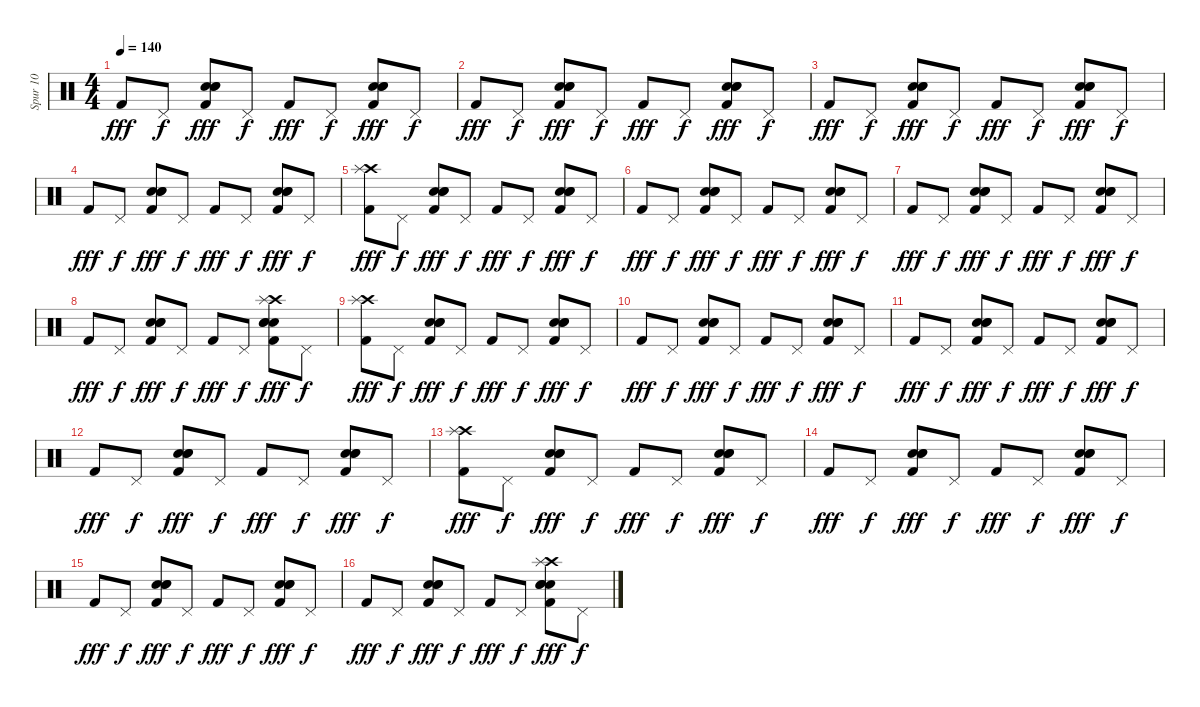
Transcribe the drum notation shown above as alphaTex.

\track ("Spur 10" "Spur 10") {instrument percussion}
\staff {score}
\articulation defaults
\ts (4 4)
\tempo 140
\clef neutral
\ks c "Kick (hit) 2".8{dy fff} "Pedal Hi-Hat (hit)".8{dy f}
("Hand Clap (hit)" "Electric Snare (hit)" "Snare (hit) 2" "Kick (hit) 2").8{dy fff} "Pedal Hi-Hat (hit)".8{dy f} "Kick (hit) 2".8{dy fff} "Pedal Hi-Hat (hit)".8{dy f} ("Hand Clap (hit)" "Electric Snare (hit)" "Snare (hit) 2" "Kick (hit) 2").8{dy fff} "Pedal Hi-Hat (hit)".8{dy f} |
"Kick (hit) 2".8{dy fff} "Pedal Hi-Hat (hit)".8{dy f} ("Hand Clap (hit)" "Electric Snare (hit)" "Snare (hit) 2" "Kick (hit) 2").8{dy fff} "Pedal Hi-Hat (hit)".8{dy f} "Kick (hit) 2".8{dy fff} "Pedal Hi-Hat (hit)".8{dy f} ("Electric Snare (hit)" "Hand Clap (hit)" "Snare (hit) 2" "Kick (hit) 2").8{dy fff} "Pedal Hi-Hat (hit)".8{dy f} |
"Kick (hit) 2".8{dy fff} "Pedal Hi-Hat (hit)".8{dy f} ("Hand Clap (hit)" "Electric Snare (hit)" "Snare (hit) 2" "Kick (hit) 2").8{dy fff} "Pedal Hi-Hat (hit)".8{dy f} "Kick (hit) 2".8{dy fff} "Pedal Hi-Hat (hit)".8{dy f} ("Hand Clap (hit)" "Electric Snare (hit)" "Snare (hit) 2" "Kick (hit) 2").8{dy fff} "Pedal Hi-Hat (hit)".8{dy f} |
"Kick (hit) 2".8{dy fff} "Pedal Hi-Hat (hit)".8{dy f} ("Electric Snare (hit)" "Hand Clap (hit)" "Snare (hit) 2" "Kick (hit) 2").8{dy fff} "Pedal Hi-Hat (hit)".8{dy f} "Kick (hit) 2".8{dy fff} "Pedal Hi-Hat (hit)".8{dy f} ("Electric Snare (hit)" "Hand Clap (hit)" "Snare (hit) 2" "Kick (hit) 2").8{dy fff} "Pedal Hi-Hat (hit)".8{dy f} |
("Crash high (hit)" "Splash (hit)" "Kick (hit) 2").8{dy fff} "Pedal Hi-Hat (hit)".8{dy f} ("Hand Clap (hit)" "Electric Snare (hit)" "Snare (hit) 2" "Kick (hit) 2").8{dy fff} "Pedal Hi-Hat (hit)".8{dy f} "Kick (hit) 2".8{dy fff} "Pedal Hi-Hat (hit)".8{dy f} ("Electric Snare (hit)" "Hand Clap (hit)" "Snare (hit) 2" "Kick (hit) 2").8{dy fff} "Pedal Hi-Hat (hit)".8{dy f} |
"Kick (hit) 2".8{dy fff} "Pedal Hi-Hat (hit)".8{dy f} ("Electric Snare (hit)" "Hand Clap (hit)" "Snare (hit) 2" "Kick (hit) 2").8{dy fff} "Pedal Hi-Hat (hit)".8{dy f} "Kick (hit) 2".8{dy fff} "Pedal Hi-Hat (hit)".8{dy f} ("Hand Clap (hit)" "Electric Snare (hit)" "Snare (hit) 2" "Kick (hit) 2").8{dy fff} "Pedal Hi-Hat (hit)".8{dy f} |
"Kick (hit) 2".8{dy fff} "Pedal Hi-Hat (hit)".8{dy f} ("Electric Snare (hit)" "Hand Clap (hit)" "Snare (hit) 2" "Kick (hit) 2").8{dy fff} "Pedal Hi-Hat (hit)".8{dy f} "Kick (hit) 2".8{dy fff} "Pedal Hi-Hat (hit)".8{dy f} ("Electric Snare (hit)" "Hand Clap (hit)" "Snare (hit) 2" "Kick (hit) 2").8{dy fff} "Pedal Hi-Hat (hit)".8{dy f} |
"Kick (hit) 2".8{dy fff} "Pedal Hi-Hat (hit)".8{dy f} ("Electric Snare (hit)" "Hand Clap (hit)" "Snare (hit) 2" "Kick (hit) 2").8{dy fff} "Pedal Hi-Hat (hit)".8{dy f} "Kick (hit) 2".8{dy fff} "Pedal Hi-Hat (hit)".8{dy f} ("Crash high (hit)" "Splash (hit)" "Electric Snare (hit)" "Hand Clap (hit)" "Snare (hit) 2" "Kick (hit) 2").8{dy fff} "Pedal Hi-Hat (hit)".8{dy f} |
("Crash high (hit)" "Splash (hit)" "Kick (hit) 2").8{dy fff} "Pedal Hi-Hat (hit)".8{dy f} ("Electric Snare (hit)" "Hand Clap (hit)" "Snare (hit) 2" "Kick (hit) 2").8{dy fff} "Pedal Hi-Hat (hit)".8{dy f} "Kick (hit) 2".8{dy fff} "Pedal Hi-Hat (hit)".8{dy f} ("Hand Clap (hit)" "Electric Snare (hit)" "Snare (hit) 2" "Kick (hit) 2").8{dy fff} "Pedal Hi-Hat (hit)".8{dy f} |
"Kick (hit) 2".8{dy fff} "Pedal Hi-Hat (hit)".8{dy f} ("Electric Snare (hit)" "Hand Clap (hit)" "Snare (hit) 2" "Kick (hit) 2").8{dy fff} "Pedal Hi-Hat (hit)".8{dy f} "Kick (hit) 2".8{dy fff} "Pedal Hi-Hat (hit)".8{dy f} ("Hand Clap (hit)" "Electric Snare (hit)" "Snare (hit) 2" "Kick (hit) 2").8{dy fff} "Pedal Hi-Hat (hit)".8{dy f} |
"Kick (hit) 2".8{dy fff} "Pedal Hi-Hat (hit)".8{dy f} ("Electric Snare (hit)" "Hand Clap (hit)" "Snare (hit) 2" "Kick (hit) 2").8{dy fff} "Pedal Hi-Hat (hit)".8{dy f} "Kick (hit) 2".8{dy fff} "Pedal Hi-Hat (hit)".8{dy f} ("Electric Snare (hit)" "Hand Clap (hit)" "Snare (hit) 2" "Kick (hit) 2").8{dy fff} "Pedal Hi-Hat (hit)".8{dy f} |
"Kick (hit) 2".8{dy fff} "Pedal Hi-Hat (hit)".8{dy f} ("Hand Clap (hit)" "Electric Snare (hit)" "Snare (hit) 2" "Kick (hit) 2").8{dy fff} "Pedal Hi-Hat (hit)".8{dy f} "Kick (hit) 2".8{dy fff} "Pedal Hi-Hat (hit)".8{dy f} ("Electric Snare (hit)" "Hand Clap (hit)" "Snare (hit) 2" "Kick (hit) 2").8{dy fff} "Pedal Hi-Hat (hit)".8{dy f} |
("Crash high (hit)" "Splash (hit)" "Kick (hit) 2").8{dy fff} "Pedal Hi-Hat (hit)".8{dy f} ("Electric Snare (hit)" "Hand Clap (hit)" "Snare (hit) 2" "Kick (hit) 2").8{dy fff} "Pedal Hi-Hat (hit)".8{dy f} "Kick (hit) 2".8{dy fff} "Pedal Hi-Hat (hit)".8{dy f} ("Hand Clap (hit)" "Electric Snare (hit)" "Snare (hit) 2" "Kick (hit) 2").8{dy fff} "Pedal Hi-Hat (hit)".8{dy f} |
"Kick (hit) 2".8{dy fff} "Pedal Hi-Hat (hit)".8{dy f} ("Hand Clap (hit)" "Electric Snare (hit)" "Snare (hit) 2" "Kick (hit) 2").8{dy fff} "Pedal Hi-Hat (hit)".8{dy f} "Kick (hit) 2".8{dy fff} "Pedal Hi-Hat (hit)".8{dy f} ("Electric Snare (hit)" "Hand Clap (hit)" "Snare (hit) 2" "Kick (hit) 2").8{dy fff} "Pedal Hi-Hat (hit)".8{dy f} |
"Kick (hit) 2".8{dy fff} "Pedal Hi-Hat (hit)".8{dy f} ("Hand Clap (hit)" "Electric Snare (hit)" "Snare (hit) 2" "Kick (hit) 2").8{dy fff} "Pedal Hi-Hat (hit)".8{dy f} "Kick (hit) 2".8{dy fff} "Pedal Hi-Hat (hit)".8{dy f} ("Electric Snare (hit)" "Hand Clap (hit)" "Snare (hit) 2" "Kick (hit) 2").8{dy fff} "Pedal Hi-Hat (hit)".8{dy f} |
"Kick (hit) 2".8{dy fff} "Pedal Hi-Hat (hit)".8{dy f} ("Hand Clap (hit)" "Electric Snare (hit)" "Snare (hit) 2" "Kick (hit) 2").8{dy fff} "Pedal Hi-Hat (hit)".8{dy f} "Kick (hit) 2".8{dy fff} "Pedal Hi-Hat (hit)".8{dy f} ("Crash high (hit)" "Splash (hit)" "Electric Snare (hit)" "Hand Clap (hit)" "Snare (hit) 2" "Kick (hit) 2").8{dy fff} "Pedal Hi-Hat (hit)".8{dy f}
